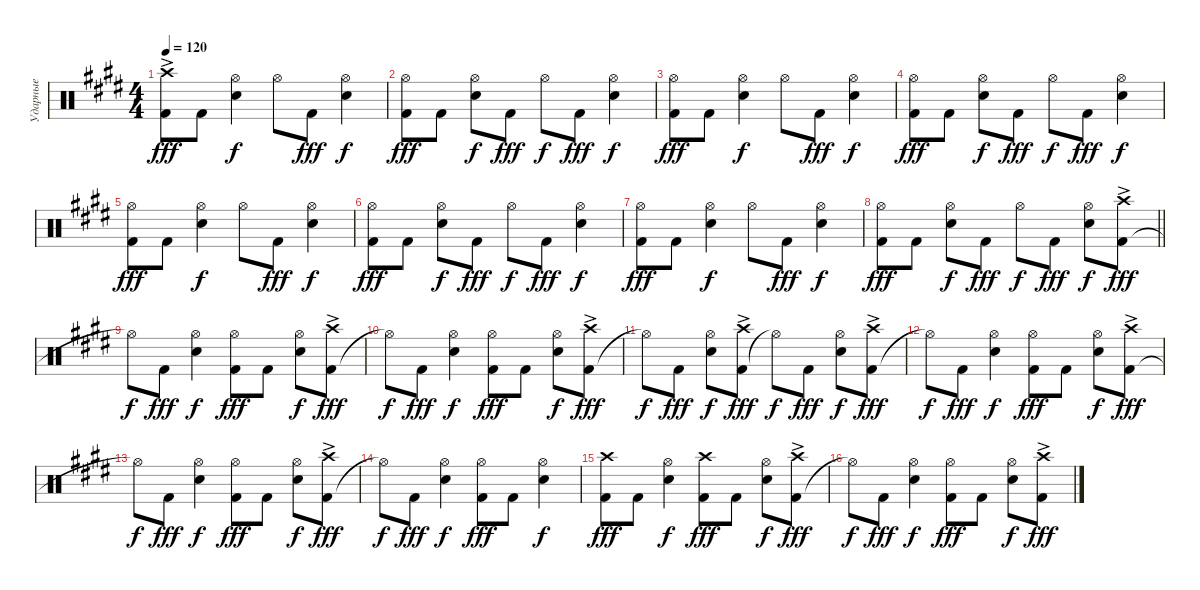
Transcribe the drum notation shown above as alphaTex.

\track ("Ударные" "Ударные") {instrument percussion}
\staff {score}
\articulation defaults
\ts (4 4)
\tempo 120
\clef neutral
\ks e
("Kick (hit) 2" "Crash high (hit)"{ac}).8{dy fff} "Kick (hit) 2".8 ("Snare (hit) 2" "Hi-Hat (open)").4{dy f} "Hi-Hat (open)".8 "Kick (hit) 2".8{dy fff} ("Snare (hit) 2" "Hi-Hat (open)").4{dy f} |
("Kick (hit) 2" "Hi-Hat (open)").8{dy fff} "Kick (hit) 2".8 ("Snare (hit) 2" "Hi-Hat (open)").8{dy f} "Kick (hit) 2".8{dy fff} "Hi-Hat (open)".8{dy f} "Kick (hit) 2".8{dy fff} ("Snare (hit) 2" "Hi-Hat (open)").4{dy f} |
("Kick (hit) 2" "Hi-Hat (open)").8{dy fff} "Kick (hit) 2".8 ("Snare (hit) 2" "Hi-Hat (open)").4{dy f} "Hi-Hat (open)".8 "Kick (hit) 2".8{dy fff} ("Snare (hit) 2" "Hi-Hat (open)").4{dy f} |
("Kick (hit) 2" "Hi-Hat (open)").8{dy fff} "Kick (hit) 2".8 ("Snare (hit) 2" "Hi-Hat (open)").8{dy f} "Kick (hit) 2".8{dy fff} "Hi-Hat (open)".8{dy f} "Kick (hit) 2".8{dy fff} ("Snare (hit) 2" "Hi-Hat (open)").4{dy f} |
("Kick (hit) 2" "Hi-Hat (open)").8{dy fff} "Kick (hit) 2".8 ("Snare (hit) 2" "Hi-Hat (open)").4{dy f} "Hi-Hat (open)".8 "Kick (hit) 2".8{dy fff} ("Snare (hit) 2" "Hi-Hat (open)").4{dy f} |
("Kick (hit) 2" "Hi-Hat (open)").8{dy fff} "Kick (hit) 2".8 ("Snare (hit) 2" "Hi-Hat (open)").8{dy f} "Kick (hit) 2".8{dy fff} "Hi-Hat (open)".8{dy f} "Kick (hit) 2".8{dy fff} ("Snare (hit) 2" "Hi-Hat (open)").4{dy f} |
("Kick (hit) 2" "Hi-Hat (open)").8{dy fff} "Kick (hit) 2".8 ("Snare (hit) 2" "Hi-Hat (open)").4{dy f} "Hi-Hat (open)".8 "Kick (hit) 2".8{dy fff} ("Snare (hit) 2" "Hi-Hat (open)").4{dy f} |
\barLineRight lightlight
("Kick (hit) 2" "Hi-Hat (open)").8{dy fff} "Kick (hit) 2".8 ("Snare (hit) 2" "Hi-Hat (open)").8{dy f} "Kick (hit) 2".8{dy fff} "Hi-Hat (open)".8{dy f} "Kick (hit) 2".8{dy fff} ("Snare (hit) 2" "Hi-Hat (open)").8{dy f} ("Kick (hit) 2" "Crash high (hit)"{ac}).8{dy fff} |
"Hi-Hat (open)"{t}.8{dy f} "Kick (hit) 2".8{dy fff} ("Snare (hit) 2" "Hi-Hat (open)").4{dy f} ("Kick (hit) 2" "Hi-Hat (open)").8{dy fff} "Kick (hit) 2".8 ("Snare (hit) 2" "Hi-Hat (open)").8{dy f} ("Kick (hit) 2" "Crash high (hit)"{ac}).8{dy fff} |
"Hi-Hat (open)"{t}.8{dy f} "Kick (hit) 2".8{dy fff} ("Snare (hit) 2" "Hi-Hat (open)").4{dy f} ("Kick (hit) 2" "Hi-Hat (open)").8{dy fff} "Kick (hit) 2".8 ("Snare (hit) 2" "Hi-Hat (open)").8{dy f} ("Kick (hit) 2" "Crash high (hit)"{ac}).8{dy fff} |
"Hi-Hat (open)"{t}.8{dy f} "Kick (hit) 2".8{dy fff} ("Snare (hit) 2" "Hi-Hat (open)").8{dy f} ("Kick (hit) 2" "Crash high (hit)"{ac}).8{dy fff} "Hi-Hat (open)"{t}.8{dy f} "Kick (hit) 2".8{dy fff} ("Snare (hit) 2" "Hi-Hat (open)").8{dy f} ("Kick (hit) 2" "Crash high (hit)"{ac}).8{dy fff} |
"Hi-Hat (open)"{t}.8{dy f} "Kick (hit) 2".8{dy fff} ("Snare (hit) 2" "Hi-Hat (open)").4{dy f} ("Kick (hit) 2" "Hi-Hat (open)").8{dy fff} "Kick (hit) 2".8 ("Snare (hit) 2" "Hi-Hat (open)").8{dy f} ("Kick (hit) 2" "Crash high (hit)"{ac}).8{dy fff} |
"Hi-Hat (open)"{t}.8{dy f} "Kick (hit) 2".8{dy fff} ("Snare (hit) 2" "Hi-Hat (open)").4{dy f} ("Kick (hit) 2" "Hi-Hat (open)").8{dy fff} "Kick (hit) 2".8 ("Snare (hit) 2" "Hi-Hat (open)").8{dy f} ("Kick (hit) 2" "Crash high (hit)"{ac}).8{dy fff} |
"Hi-Hat (open)"{t}.8{dy f} "Kick (hit) 2".8{dy fff} ("Snare (hit) 2" "Hi-Hat (open)").4{dy f} ("Kick (hit) 2" "Hi-Hat (open)").8{dy fff} "Kick (hit) 2".8 ("Snare (hit) 2" "Hi-Hat (open)").4{dy f} |
("Kick (hit) 2" "Crash high (hit)").8{dy fff} "Kick (hit) 2".8 ("Snare (hit) 2" "Hi-Hat (open)").4{dy f} ("Kick (hit) 2" "Crash high (hit)").8{dy fff} "Kick (hit) 2".8 ("Snare (hit) 2" "Hi-Hat (open)").8{dy f} ("Kick (hit) 2" "Crash high (hit)"{ac}).8{dy fff} |
"Hi-Hat (open)"{t}.8{dy f} "Kick (hit) 2".8{dy fff} ("Snare (hit) 2" "Hi-Hat (open)").4{dy f} ("Kick (hit) 2" "Hi-Hat (open)").8{dy fff} "Kick (hit) 2".8 ("Snare (hit) 2" "Hi-Hat (open)").8{dy f} ("Kick (hit) 2" "Crash high (hit)"{ac}).8{dy fff}
